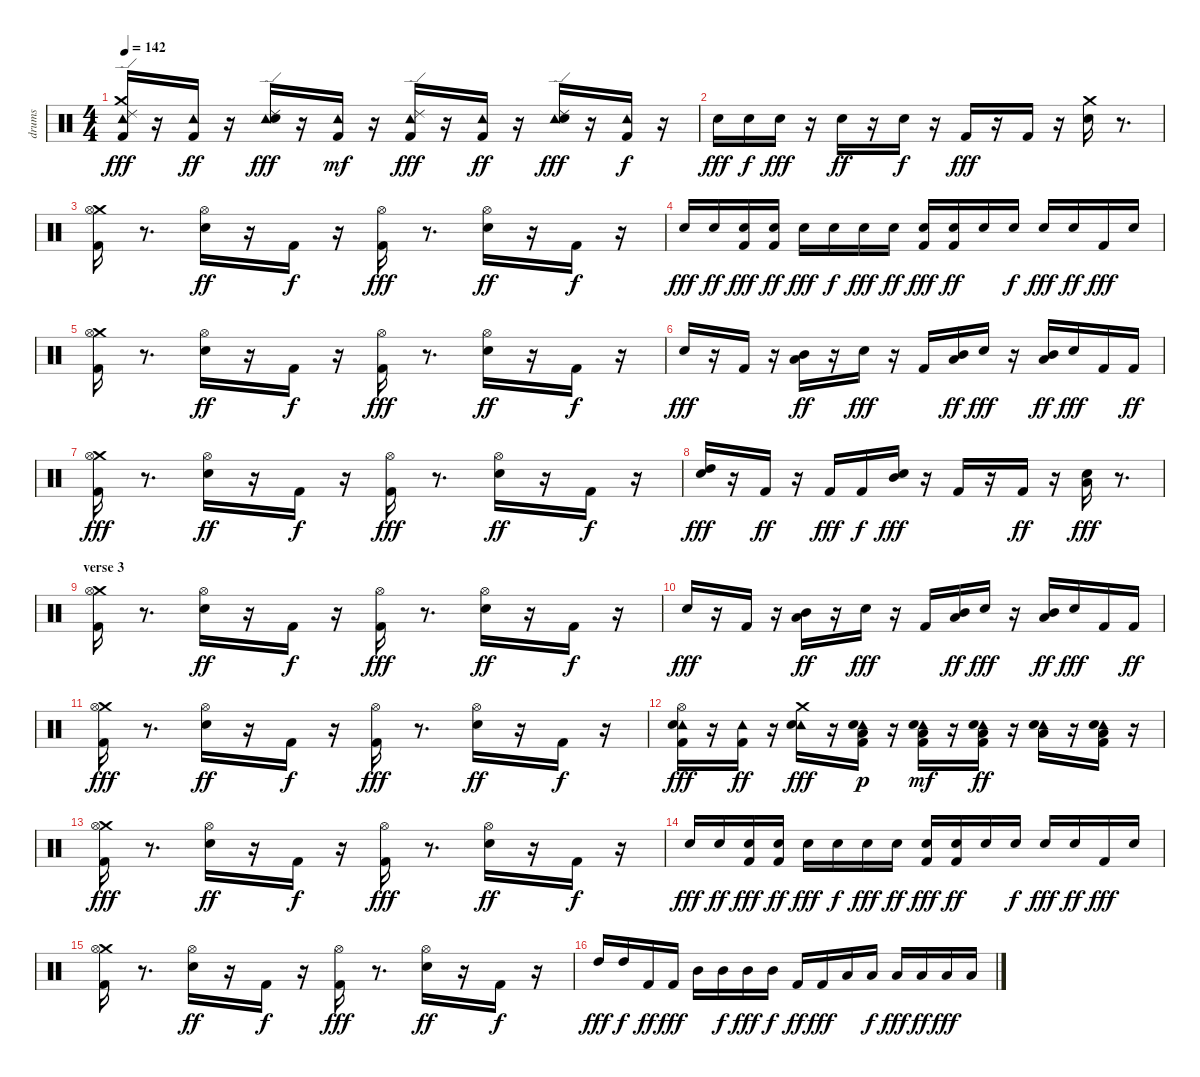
\track ("drums" "drums") {instrument percussion}
\staff {score}
\articulation defaults
\ts (4 4)
\tempo 142
\clef neutral
\ks c
("Tambourine (hit)" "Crash medium (hit)" "Ride (edge) 2" "Kick (hit) 2").16{dy fff} r.16 ("Tambourine (hit)" "Kick (hit) 2").16{dy ff} r.16 ("Tambourine (hit)" "Ride (edge) 2" "Snare (hit) 2").16{dy fff} r.16 ("Tambourine (hit)" "Kick (hit) 2").16{dy mf} r.16 ("Tambourine (hit)" "Ride (edge) 2" "Kick (hit) 2").16{dy fff} r.16 ("Tambourine (hit)" "Kick (hit) 2").16{dy ff} r.16 ("Tambourine (hit)" "Ride (edge) 2" "Snare (hit) 2").16{dy fff} r.16 ("Tambourine (hit)" "Kick (hit) 2").16{dy f} r.16 |
"Snare (hit) 2".16{dy fff} "Snare (hit) 2".16{dy f} "Snare (hit) 2".16{dy fff} r.16 "Snare (hit) 2".16{dy ff} r.16 "Snare (hit) 2".16{dy f} r.16 "Kick (hit) 2".16{dy fff} r.16 "Kick (hit) 2".16 r.16 ("Crash medium (hit)" "Snare (hit) 2").16 r.8{d} |
("Crash medium (hit)" "Hi-Hat (open)" "Kick (hit) 2").16 r.8{d} ("Hi-Hat (open)" "Snare (hit) 2").16{dy ff} r.16 "Kick (hit) 2".16{dy f} r.16 ("Hi-Hat (open)" "Kick (hit) 2").16{dy fff} r.8{d} ("Hi-Hat (open)" "Snare (hit) 2").16{dy ff} r.16 "Kick (hit) 2".16{dy f} r.16 |
"Snare (hit) 2".16{dy fff} "Snare (hit) 2".16{dy ff} ("Snare (hit) 2" "Kick (hit) 2").16{dy fff} ("Snare (hit) 2" "Kick (hit) 2").16{dy ff} "Snare (hit) 2".16{dy fff} "Snare (hit) 2".16{dy f} "Snare (hit) 2".16{dy fff} "Snare (hit) 2".16{dy ff} ("Snare (hit) 2" "Kick (hit) 2").16{dy fff} ("Snare (hit) 2" "Kick (hit) 2").16{dy ff} "Snare (hit) 2".16 "Snare (hit) 2".16{dy f} "Snare (hit) 2".16{dy fff} "Snare (hit) 2".16{dy ff} "Kick (hit) 2".16{dy fff} "Snare (hit) 2".16 |
("Crash medium (hit)" "Hi-Hat (open)" "Kick (hit) 2").16 r.8{d} ("Hi-Hat (open)" "Snare (hit) 2").16{dy ff} r.16 "Kick (hit) 2".16{dy f} r.16 ("Hi-Hat (open)" "Kick (hit) 2").16{dy fff} r.8{d} ("Hi-Hat (open)" "Snare (hit) 2").16{dy ff} r.16 "Kick (hit) 2".16{dy f} r.16 |
"Snare (hit) 2".16{dy fff} r.16 "Kick (hit) 2".16 r.16 ("Mid Tom (hit)" "Low Floor Tom (hit)").16{dy ff} r.16 "Snare (hit) 2".16{dy fff} r.16 "Kick (hit) 2".16 ("Mid Tom (hit)" "Low Floor Tom (hit)").16{dy ff} "Snare (hit) 2".16{dy fff} r.16 ("Mid Tom (hit)" "Low Floor Tom (hit)").16{dy ff} "Snare (hit) 2".16{dy fff} "Kick (hit) 2".16 "Kick (hit) 2".16{dy ff} |
("Crash medium (hit)" "Hi-Hat (open)" "Kick (hit) 2").16{dy fff} r.8{d} ("Hi-Hat (open)" "Snare (hit) 2").16{dy ff} r.16 "Kick (hit) 2".16{dy f} r.16 ("Hi-Hat (open)" "Kick (hit) 2").16{dy fff} r.8{d} ("Hi-Hat (open)" "Snare (hit) 2").16{dy ff} r.16 "Kick (hit) 2".16{dy f} r.16 |
("High Tom (hit)" "Snare (hit) 2").16{dy fff} r.16 "Kick (hit) 2".16{dy ff} r.16 "Kick (hit) 2".16{dy fff} "Kick (hit) 2".16{dy f} ("Mid Tom (hit)" "Snare (hit) 2").16{dy fff} r.16 "Kick (hit) 2".16 r.16 "Kick (hit) 2".16{dy ff} r.16 ("Low Floor Tom (hit)" "Snare (hit) 2").16{dy fff} r.8{d} |
\section ("" "verse 3")
("Crash medium (hit)" "Hi-Hat (open)" "Kick (hit) 2").16 r.8{d} ("Hi-Hat (open)" "Snare (hit) 2").16{dy ff} r.16 "Kick (hit) 2".16{dy f} r.16 ("Hi-Hat (open)" "Kick (hit) 2").16{dy fff} r.8{d} ("Hi-Hat (open)" "Snare (hit) 2").16{dy ff} r.16 "Kick (hit) 2".16{dy f} r.16 |
"Snare (hit) 2".16{dy fff} r.16 "Kick (hit) 2".16 r.16 ("Mid Tom (hit)" "Low Floor Tom (hit)").16{dy ff} r.16 "Snare (hit) 2".16{dy fff} r.16 "Kick (hit) 2".16 ("Mid Tom (hit)" "Low Floor Tom (hit)").16{dy ff} "Snare (hit) 2".16{dy fff} r.16 ("Mid Tom (hit)" "Low Floor Tom (hit)").16{dy ff} "Snare (hit) 2".16{dy fff} "Kick (hit) 2".16 "Kick (hit) 2".16{dy ff} |
("Crash medium (hit)" "Hi-Hat (open)" "Kick (hit) 2").16{dy fff} r.8{d} ("Hi-Hat (open)" "Snare (hit) 2").16{dy ff} r.16 "Kick (hit) 2".16{dy f} r.16 ("Hi-Hat (open)" "Kick (hit) 2").16{dy fff} r.8{d} ("Hi-Hat (open)" "Snare (hit) 2").16{dy ff} r.16 "Kick (hit) 2".16{dy f} r.16 |
("Tambourine (hit)" "Hi-Hat (open)" "Snare (hit) 2" "Kick (hit) 2").16{dy fff} r.16 ("Tambourine (hit)" "Kick (hit) 2").16{dy ff} r.16 ("Tambourine (hit)" "Crash medium (hit)" "Snare (hit) 2").16{dy fff} r.16 ("Tambourine (hit)" "Low Floor Tom (hit)" "Snare (hit) 2" "Kick (hit) 2").16{dy p} r.16 ("Tambourine (hit)" "Low Floor Tom (hit)" "Snare (hit) 2" "Kick (hit) 2").16{dy mf} r.16 ("Tambourine (hit)" "Low Floor Tom (hit)" "Snare (hit) 2" "Kick (hit) 2").16{dy ff} r.16 ("Tambourine (hit)" "Low Floor Tom (hit)" "Snare (hit) 2").16 r.16 ("Tambourine (hit)" "Low Floor Tom (hit)" "Snare (hit) 2" "Kick (hit) 2").16 r.16 |
("Crash medium (hit)" "Hi-Hat (open)" "Kick (hit) 2").16{dy fff} r.8{d} ("Hi-Hat (open)" "Snare (hit) 2").16{dy ff} r.16 "Kick (hit) 2".16{dy f} r.16 ("Hi-Hat (open)" "Kick (hit) 2").16{dy fff} r.8{d} ("Hi-Hat (open)" "Snare (hit) 2").16{dy ff} r.16 "Kick (hit) 2".16{dy f} r.16 |
"Snare (hit) 2".16{dy fff} "Snare (hit) 2".16{dy ff} ("Snare (hit) 2" "Kick (hit) 2").16{dy fff} ("Snare (hit) 2" "Kick (hit) 2").16{dy ff} "Snare (hit) 2".16{dy fff} "Snare (hit) 2".16{dy f} "Snare (hit) 2".16{dy fff} "Snare (hit) 2".16{dy ff} ("Snare (hit) 2" "Kick (hit) 2").16{dy fff} ("Snare (hit) 2" "Kick (hit) 2").16{dy ff} "Snare (hit) 2".16 "Snare (hit) 2".16{dy f} "Snare (hit) 2".16{dy fff} "Snare (hit) 2".16{dy ff} "Kick (hit) 2".16{dy fff} "Snare (hit) 2".16 |
("Crash medium (hit)" "Hi-Hat (open)" "Kick (hit) 2").16 r.8{d} ("Hi-Hat (open)" "Snare (hit) 2").16{dy ff} r.16 "Kick (hit) 2".16{dy f} r.16 ("Hi-Hat (open)" "Kick (hit) 2").16{dy fff} r.8{d} ("Hi-Hat (open)" "Snare (hit) 2").16{dy ff} r.16 "Kick (hit) 2".16{dy f} r.16 |
"High Tom (hit)".16{dy fff} "High Tom (hit)".16{dy f} "Kick (hit) 2".16{dy ff} "Kick (hit) 2".16{dy fff} "Mid Tom (hit)".16 "Mid Tom (hit)".16{dy f} "Mid Tom (hit)".16{dy fff} "Mid Tom (hit)".16{dy f} "Kick (hit) 2".16{dy ff} "Kick (hit) 2".16{dy fff} "Low Floor Tom (hit)".16 "Low Floor Tom (hit)".16{dy f} "Low Floor Tom (hit)".16{dy fff} "Low Floor Tom (hit)".16{dy ff} "Low Floor Tom (hit)".16{dy fff} "Low Floor Tom (hit)".16
